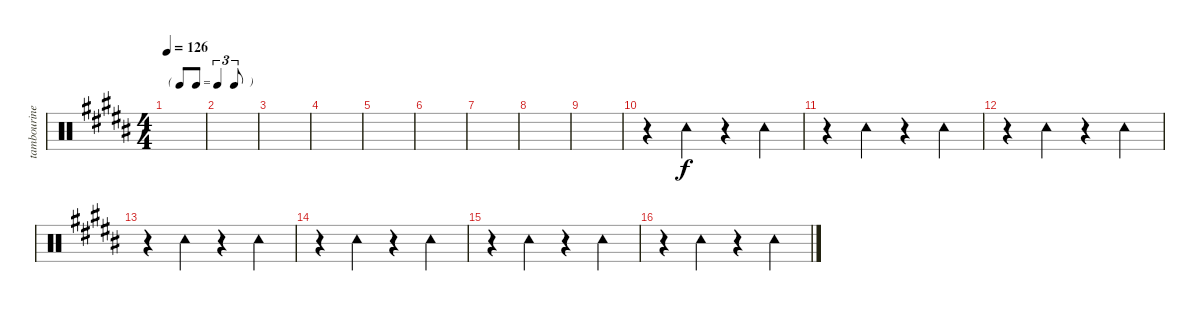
\track ("tambourine" "tambourine") {instrument percussion}
\staff {score}
\articulation defaults
\ts (4 4)
\tf triplet8th
\tempo 126
\clef neutral
\ks b
|
|
|
|
|
|
|
|
|
r.4 "Tambourine (hit)".4 r.4 "Tambourine (hit)".4 |
r.4 "Tambourine (hit)".4 r.4 "Tambourine (hit)".4 |
r.4 "Tambourine (hit)".4 r.4 "Tambourine (hit)".4 |
r.4 "Tambourine (hit)".4 r.4 "Tambourine (hit)".4 |
r.4 "Tambourine (hit)".4 r.4 "Tambourine (hit)".4 |
r.4 "Tambourine (hit)".4 r.4 "Tambourine (hit)".4 |
r.4 "Tambourine (hit)".4 r.4 "Tambourine (hit)".4
